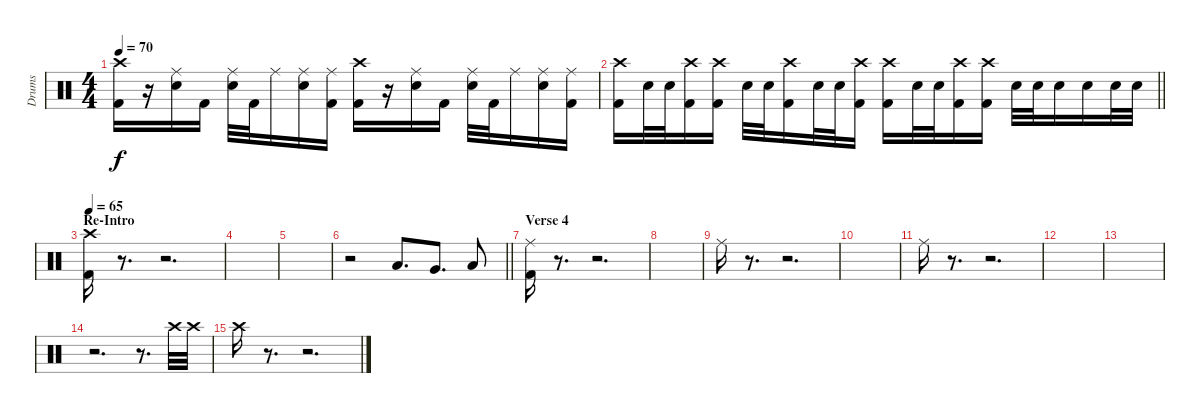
\track ("Drums" "Drums") {instrument percussion}
\staff {score}
\articulation defaults
\ts (4 4)
\tempo 70
\clef neutral
\ks c
("Crash high (hit)" "Kick (hit) 2").16{dy f} r.16 ("Ride (middle)" "Snare (hit) 2").16 "Kick (hit) 2".16 ("Ride (middle)" "Snare (hit) 2").32 "Kick (hit) 2".32 "Ride (middle)".16 ("Ride (middle)" "Snare (hit) 2").16 ("Ride (middle)" "Kick (hit) 2").16 ("Crash high (hit)" "Kick (hit) 2").16 r.16 ("Ride (middle)" "Snare (hit) 2").16 "Kick (hit) 2".16 ("Ride (middle)" "Snare (hit) 2").32 "Kick (hit) 2".32 "Ride (middle)".16 ("Ride (middle)" "Snare (hit) 2").16 ("Ride (middle)" "Kick (hit) 2").16 |
\barLineRight lightlight
("Crash high (hit)" "Kick (hit) 2").16 "Snare (hit) 2".32 "Snare (hit) 2".32 ("Crash high (hit)" "Kick (hit) 2").16 ("Crash high (hit)" "Kick (hit) 2").16 "Snare (hit) 2".32 "Snare (hit) 2".32 ("Crash high (hit)" "Kick (hit) 2").16 "Snare (hit) 2".32 "Snare (hit) 2".32 ("Crash high (hit)" "Kick (hit) 2").16 ("Crash high (hit)" "Kick (hit) 2").16 "Snare (hit) 2".32 "Snare (hit) 2".32 ("Crash high (hit)" "Kick (hit) 2").16 ("Crash high (hit)" "Kick (hit) 2").16 "Snare (hit) 2".32 "Snare (hit) 2".32 "Snare (hit) 2".16 "Snare (hit) 2".16 "Snare (hit) 2".32 "Snare (hit) 2".32 |
\section ("" "Re-Intro")
\tempo 65
("Crash high (hit)" "Kick (hit) 2").16 r.8{d} r.2{d} |
|
|
\barLineRight lightlight
r.2 "Low Tom (hit)".8{d} "Very Low Tom (hit)".8{d} "Low Floor Tom (hit)".8 |
\section ("" "Verse 4")
("Ride (middle)" "Kick (hit) 2").16 r.8{d} r.2{d} |
|
"Ride (middle)".16 r.8{d} r.2{d} |
|
"Ride (middle)".16 r.8{d} r.2{d} |
|
|
r.2{d} r.8{d} "Crash high (hit)".32 "Crash high (hit)".32 |
"Crash high (hit)".16 r.8{d} r.2{d}
